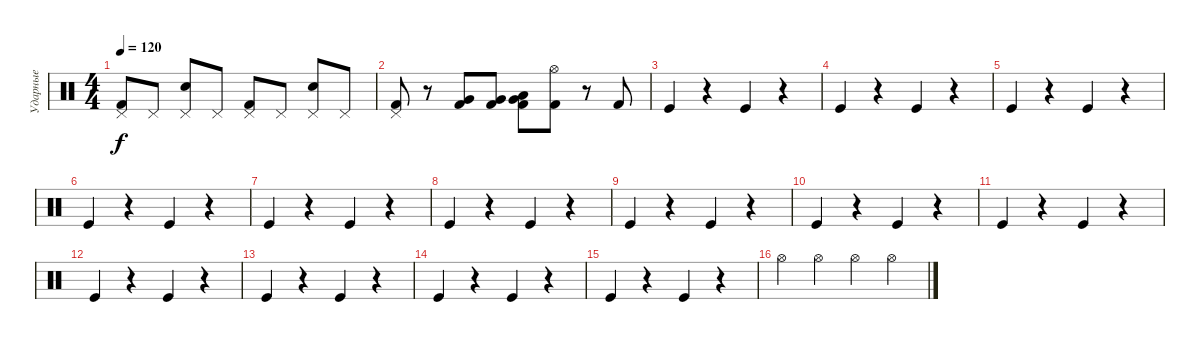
\track ("Ударные" "Ударные") {instrument percussion}
\staff {score}
\articulation defaults
\ts (4 4)
\tempo 120
\clef neutral
\ks c
("Pedal Hi-Hat (hit)" "Kick (hit) 2").8{dy f} "Pedal Hi-Hat (hit)".8 ("Pedal Hi-Hat (hit)" "Snare (hit) 2").8 "Pedal Hi-Hat (hit)".8 ("Pedal Hi-Hat (hit)" "Kick (hit) 2").8 "Pedal Hi-Hat (hit)".8 ("Pedal Hi-Hat (hit)" "Snare (hit) 2").8 "Pedal Hi-Hat (hit)".8 |
("Pedal Hi-Hat (hit)" "Kick (hit) 2").8 r.8 ("Very Low Tom (hit)" "Kick (hit) 2").8 ("Very Low Tom (hit)" "Kick (hit) 2").8 ("Very Low Tom (hit)" "Low Tom (hit)" "Kick (hit) 2").8 ("Hi-Hat (open)" "Kick (hit) 2").8 r.8 "Kick (hit) 2".8 |
"Kick (hit)".4 r.4 "Kick (hit)".4 r.4 |
"Kick (hit)".4 r.4 "Kick (hit)".4 r.4 |
"Kick (hit)".4 r.4 "Kick (hit)".4 r.4 |
"Kick (hit)".4 r.4 "Kick (hit)".4 r.4 |
"Kick (hit)".4 r.4 "Kick (hit)".4 r.4 |
"Kick (hit)".4 r.4 "Kick (hit)".4 r.4 |
"Kick (hit)".4 r.4 "Kick (hit)".4 r.4 |
"Kick (hit)".4 r.4 "Kick (hit)".4 r.4 |
"Kick (hit)".4 r.4 "Kick (hit)".4 r.4 |
"Kick (hit)".4 r.4 "Kick (hit)".4 r.4 |
"Kick (hit)".4 r.4 "Kick (hit)".4 r.4 |
"Kick (hit)".4 r.4 "Kick (hit)".4 r.4 |
"Kick (hit)".4 r.4 "Kick (hit)".4 r.4 |
"Hi-Hat (open)".4 "Hi-Hat (open)".4 "Hi-Hat (open)".4 "Hi-Hat (open)".4
